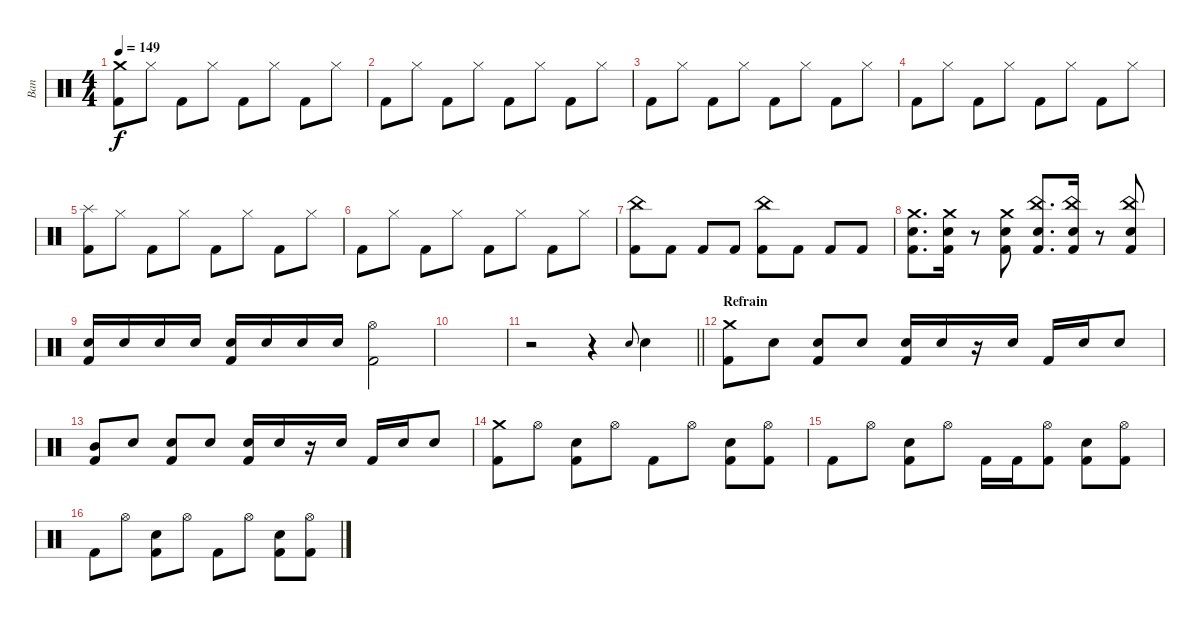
\track ("Ban" "Ban") {instrument percussion}
\staff {score}
\articulation defaults
\ts (4 4)
\tempo 149
\clef neutral
\ks c
("Crash medium (hit)" "Kick (hit) 2").8{dy f} "Hi-Hat (closed)".8 "Kick (hit) 2".8 "Hi-Hat (closed)".8 "Kick (hit) 2".8 "Hi-Hat (closed)".8 "Kick (hit) 2".8 "Hi-Hat (closed)".8 |
"Kick (hit) 2".8 "Hi-Hat (closed)".8 "Kick (hit) 2".8 "Hi-Hat (closed)".8 "Kick (hit) 2".8 "Hi-Hat (closed)".8 "Kick (hit) 2".8 "Hi-Hat (closed)".8 |
"Kick (hit) 2".8 "Hi-Hat (closed)".8 "Kick (hit) 2".8 "Hi-Hat (closed)".8 "Kick (hit) 2".8 "Hi-Hat (closed)".8 "Kick (hit) 2".8 "Hi-Hat (closed)".8 |
"Kick (hit) 2".8 "Hi-Hat (closed)".8 "Kick (hit) 2".8 "Hi-Hat (closed)".8 "Kick (hit) 2".8 "Hi-Hat (closed)".8 "Kick (hit) 2".8 "Hi-Hat (closed)".8 |
("Splash (hit)" "Kick (hit) 2").8 "Hi-Hat (closed)".8 "Kick (hit) 2".8 "Hi-Hat (closed)".8 "Kick (hit) 2".8 "Hi-Hat (closed)".8 "Kick (hit) 2".8 "Hi-Hat (closed)".8 |
"Kick (hit) 2".8 "Hi-Hat (closed)".8 "Kick (hit) 2".8 "Hi-Hat (closed)".8 "Kick (hit) 2".8 "Hi-Hat (closed)".8 "Kick (hit) 2".8 "Hi-Hat (closed)".8 |
("China (hit)" "Kick (hit) 2").8 "Kick (hit) 2".8 "Kick (hit) 2".8 "Kick (hit) 2".8 ("China (hit)" "Kick (hit) 2").8 "Kick (hit) 2".8 "Kick (hit) 2".8 "Kick (hit) 2".8 |
("Crash medium (hit)" "Electric Snare (hit)" "Kick (hit) 2").8{d} ("Crash medium (hit)" "Electric Snare (hit)" "Kick (hit) 2").16 r.8 ("Crash medium (hit)" "Electric Snare (hit)" "Kick (hit) 2").8 ("China (hit)" "Electric Snare (hit)" "Kick (hit) 2").8{d} ("China (hit)" "Electric Snare (hit)" "Kick (hit) 2").16 r.8 ("China (hit)" "Electric Snare (hit)" "Kick (hit) 2").8 |
("Electric Snare (hit)" "Kick (hit) 2").16 "Electric Snare (hit)".16 "Electric Snare (hit)".16 "Electric Snare (hit)".16 ("Electric Snare (hit)" "Kick (hit) 2").16 "Electric Snare (hit)".16 "Electric Snare (hit)".16 "Electric Snare (hit)".16 ("Hi-Hat (open)" "Kick (hit) 2").2 |
|
\barLineRight lightlight
r.2 r.4 "Electric Snare (hit)".8{gr onbeat} "Electric Snare (hit)".4 |
\section ("" "Refrain")
("Crash medium (hit)" "Kick (hit) 2").8 "Electric Snare (hit)".8 ("Electric Snare (hit)" "Kick (hit) 2").8 "Electric Snare (hit)".8 ("Electric Snare (hit)" "Kick (hit) 2").16 "Electric Snare (hit)".16 r.16 "Electric Snare (hit)".16 "Kick (hit) 2".16 "Electric Snare (hit)".16 "Electric Snare (hit)".8 |
("Mid Tom (hit)" "Kick (hit) 2").8 "Electric Snare (hit)".8 ("Electric Snare (hit)" "Kick (hit) 2").8 "Electric Snare (hit)".8 ("Electric Snare (hit)" "Kick (hit) 2").16 "Electric Snare (hit)".16 r.16 "Electric Snare (hit)".16 "Kick (hit) 2".16 "Electric Snare (hit)".16 "Electric Snare (hit)".8 |
("Crash medium (hit)" "Kick (hit) 2").8 "Hi-Hat (open)".8 ("Electric Snare (hit)" "Kick (hit) 2").8 "Hi-Hat (open)".8 "Kick (hit) 2".8 "Hi-Hat (open)".8 ("Electric Snare (hit)" "Kick (hit) 2").8 ("Hi-Hat (open)" "Kick (hit) 2").8 |
"Kick (hit) 2".8 "Hi-Hat (open)".8 ("Electric Snare (hit)" "Kick (hit) 2").8 "Hi-Hat (open)".8 "Kick (hit) 2".16 "Kick (hit) 2".16 ("Hi-Hat (open)" "Kick (hit) 2").8 ("Electric Snare (hit)" "Kick (hit) 2").8 ("Hi-Hat (open)" "Kick (hit) 2").8 |
"Kick (hit) 2".8 "Hi-Hat (open)".8 ("Electric Snare (hit)" "Kick (hit) 2").8 "Hi-Hat (open)".8 "Kick (hit) 2".8 "Hi-Hat (open)".8 ("Electric Snare (hit)" "Kick (hit) 2").8 ("Hi-Hat (open)" "Kick (hit) 2").8
